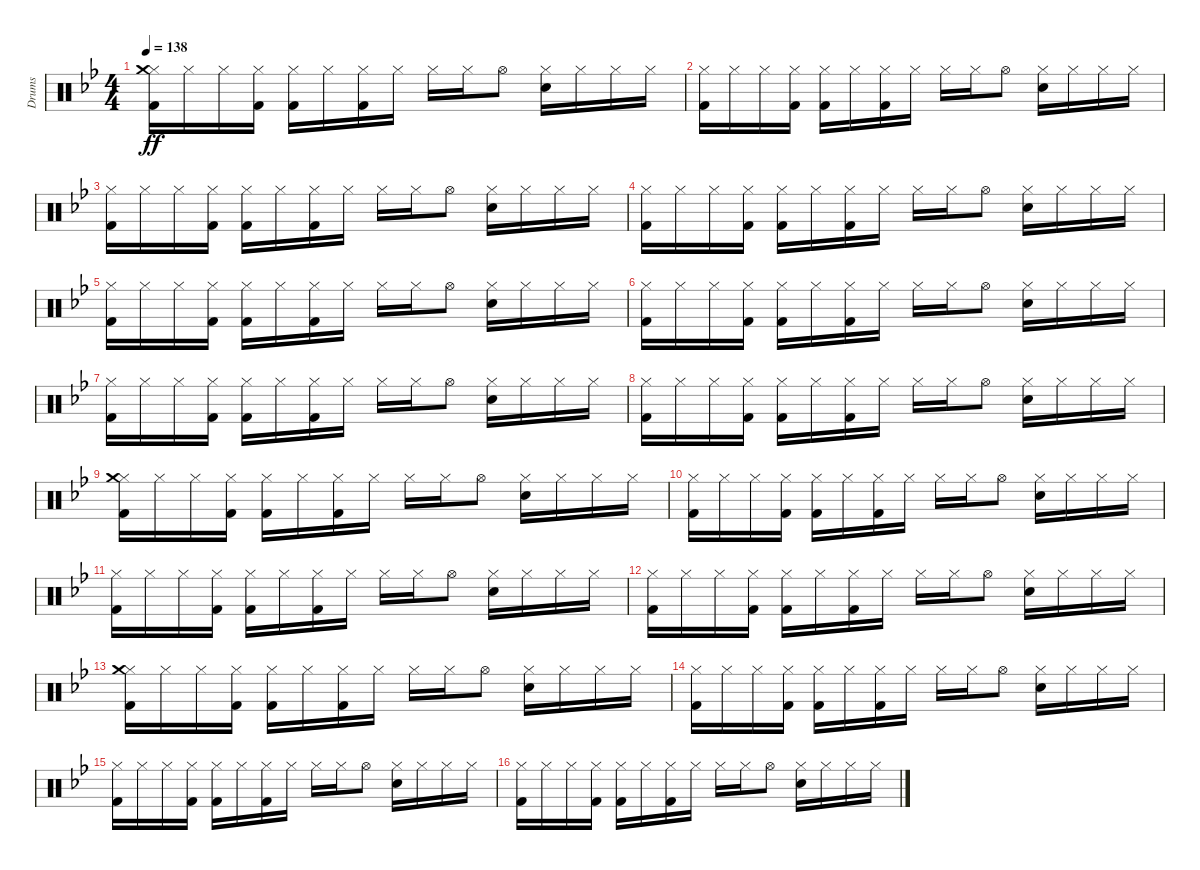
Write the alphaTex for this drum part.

\track ("Drums" "Drums") {instrument percussion}
\staff {score}
\articulation defaults
\ts (4 4)
\tempo 138
\clef neutral
\ks bb
("Kick (hit) 2" "Hi-Hat (closed)" "Crash medium (hit)").16{dy ff} "Hi-Hat (closed)".16 "Hi-Hat (closed)".16 ("Kick (hit) 2" "Hi-Hat (closed)").16 ("Kick (hit) 2" "Hi-Hat (closed)").16 "Hi-Hat (closed)".16 ("Kick (hit) 2" "Hi-Hat (closed)").16 "Hi-Hat (closed)".16 "Hi-Hat (closed)".16 "Hi-Hat (closed)".16 "Hi-Hat (open)".8 ("Snare (hit) 2" "Hi-Hat (closed)").16 "Hi-Hat (closed)".16 "Hi-Hat (closed)".16 "Hi-Hat (closed)".16 |
("Kick (hit) 2" "Hi-Hat (closed)").16 "Hi-Hat (closed)".16 "Hi-Hat (closed)".16 ("Kick (hit) 2" "Hi-Hat (closed)").16 ("Kick (hit) 2" "Hi-Hat (closed)").16 "Hi-Hat (closed)".16 ("Kick (hit) 2" "Hi-Hat (closed)").16 "Hi-Hat (closed)".16 "Hi-Hat (closed)".16 "Hi-Hat (closed)".16 "Hi-Hat (open)".8 ("Snare (hit) 2" "Hi-Hat (closed)").16 "Hi-Hat (closed)".16 "Hi-Hat (closed)".16 "Hi-Hat (closed)".16 |
("Kick (hit) 2" "Hi-Hat (closed)").16 "Hi-Hat (closed)".16 "Hi-Hat (closed)".16 ("Kick (hit) 2" "Hi-Hat (closed)").16 ("Kick (hit) 2" "Hi-Hat (closed)").16 "Hi-Hat (closed)".16 ("Kick (hit) 2" "Hi-Hat (closed)").16 "Hi-Hat (closed)".16 "Hi-Hat (closed)".16 "Hi-Hat (closed)".16 "Hi-Hat (open)".8 ("Snare (hit) 2" "Hi-Hat (closed)").16 "Hi-Hat (closed)".16 "Hi-Hat (closed)".16 "Hi-Hat (closed)".16 |
("Kick (hit) 2" "Hi-Hat (closed)").16 "Hi-Hat (closed)".16 "Hi-Hat (closed)".16 ("Kick (hit) 2" "Hi-Hat (closed)").16 ("Kick (hit) 2" "Hi-Hat (closed)").16 "Hi-Hat (closed)".16 ("Kick (hit) 2" "Hi-Hat (closed)").16 "Hi-Hat (closed)".16 "Hi-Hat (closed)".16 "Hi-Hat (closed)".16 "Hi-Hat (open)".8 ("Snare (hit) 2" "Hi-Hat (closed)").16 "Hi-Hat (closed)".16 "Hi-Hat (closed)".16 "Hi-Hat (closed)".16 |
("Kick (hit) 2" "Hi-Hat (closed)").16 "Hi-Hat (closed)".16 "Hi-Hat (closed)".16 ("Kick (hit) 2" "Hi-Hat (closed)").16 ("Kick (hit) 2" "Hi-Hat (closed)").16 "Hi-Hat (closed)".16 ("Kick (hit) 2" "Hi-Hat (closed)").16 "Hi-Hat (closed)".16 "Hi-Hat (closed)".16 "Hi-Hat (closed)".16 "Hi-Hat (open)".8 ("Snare (hit) 2" "Hi-Hat (closed)").16 "Hi-Hat (closed)".16 "Hi-Hat (closed)".16 "Hi-Hat (closed)".16 |
("Kick (hit) 2" "Hi-Hat (closed)").16 "Hi-Hat (closed)".16 "Hi-Hat (closed)".16 ("Kick (hit) 2" "Hi-Hat (closed)").16 ("Kick (hit) 2" "Hi-Hat (closed)").16 "Hi-Hat (closed)".16 ("Kick (hit) 2" "Hi-Hat (closed)").16 "Hi-Hat (closed)".16 "Hi-Hat (closed)".16 "Hi-Hat (closed)".16 "Hi-Hat (open)".8 ("Snare (hit) 2" "Hi-Hat (closed)").16 "Hi-Hat (closed)".16 "Hi-Hat (closed)".16 "Hi-Hat (closed)".16 |
("Kick (hit) 2" "Hi-Hat (closed)").16 "Hi-Hat (closed)".16 "Hi-Hat (closed)".16 ("Kick (hit) 2" "Hi-Hat (closed)").16 ("Kick (hit) 2" "Hi-Hat (closed)").16 "Hi-Hat (closed)".16 ("Kick (hit) 2" "Hi-Hat (closed)").16 "Hi-Hat (closed)".16 "Hi-Hat (closed)".16 "Hi-Hat (closed)".16 "Hi-Hat (open)".8 ("Snare (hit) 2" "Hi-Hat (closed)").16 "Hi-Hat (closed)".16 "Hi-Hat (closed)".16 "Hi-Hat (closed)".16 |
("Kick (hit) 2" "Hi-Hat (closed)").16 "Hi-Hat (closed)".16 "Hi-Hat (closed)".16 ("Kick (hit) 2" "Hi-Hat (closed)").16 ("Kick (hit) 2" "Hi-Hat (closed)").16 "Hi-Hat (closed)".16 ("Kick (hit) 2" "Hi-Hat (closed)").16 "Hi-Hat (closed)".16 "Hi-Hat (closed)".16 "Hi-Hat (closed)".16 "Hi-Hat (open)".8 ("Snare (hit) 2" "Hi-Hat (closed)").16 "Hi-Hat (closed)".16 "Hi-Hat (closed)".16 "Hi-Hat (closed)".16 |
("Kick (hit) 2" "Hi-Hat (closed)" "Crash medium (hit)").16 "Hi-Hat (closed)".16 "Hi-Hat (closed)".16 ("Kick (hit) 2" "Hi-Hat (closed)").16 ("Kick (hit) 2" "Hi-Hat (closed)").16 "Hi-Hat (closed)".16 ("Kick (hit) 2" "Hi-Hat (closed)").16 "Hi-Hat (closed)".16 "Hi-Hat (closed)".16 "Hi-Hat (closed)".16 "Hi-Hat (open)".8 ("Snare (hit) 2" "Hi-Hat (closed)").16 "Hi-Hat (closed)".16 "Hi-Hat (closed)".16 "Hi-Hat (closed)".16 |
("Kick (hit) 2" "Hi-Hat (closed)").16 "Hi-Hat (closed)".16 "Hi-Hat (closed)".16 ("Kick (hit) 2" "Hi-Hat (closed)").16 ("Kick (hit) 2" "Hi-Hat (closed)").16 "Hi-Hat (closed)".16 ("Kick (hit) 2" "Hi-Hat (closed)").16 "Hi-Hat (closed)".16 "Hi-Hat (closed)".16 "Hi-Hat (closed)".16 "Hi-Hat (open)".8 ("Snare (hit) 2" "Hi-Hat (closed)").16 "Hi-Hat (closed)".16 "Hi-Hat (closed)".16 "Hi-Hat (closed)".16 |
("Kick (hit) 2" "Hi-Hat (closed)").16 "Hi-Hat (closed)".16 "Hi-Hat (closed)".16 ("Kick (hit) 2" "Hi-Hat (closed)").16 ("Kick (hit) 2" "Hi-Hat (closed)").16 "Hi-Hat (closed)".16 ("Kick (hit) 2" "Hi-Hat (closed)").16 "Hi-Hat (closed)".16 "Hi-Hat (closed)".16 "Hi-Hat (closed)".16 "Hi-Hat (open)".8 ("Snare (hit) 2" "Hi-Hat (closed)").16 "Hi-Hat (closed)".16 "Hi-Hat (closed)".16 "Hi-Hat (closed)".16 |
("Kick (hit) 2" "Hi-Hat (closed)").16 "Hi-Hat (closed)".16 "Hi-Hat (closed)".16 ("Kick (hit) 2" "Hi-Hat (closed)").16 ("Kick (hit) 2" "Hi-Hat (closed)").16 "Hi-Hat (closed)".16 ("Kick (hit) 2" "Hi-Hat (closed)").16 "Hi-Hat (closed)".16 "Hi-Hat (closed)".16 "Hi-Hat (closed)".16 "Hi-Hat (open)".8 ("Snare (hit) 2" "Hi-Hat (closed)").16 "Hi-Hat (closed)".16 "Hi-Hat (closed)".16 "Hi-Hat (closed)".16 |
("Kick (hit) 2" "Hi-Hat (closed)" "Crash medium (hit)").16 "Hi-Hat (closed)".16 "Hi-Hat (closed)".16 ("Kick (hit) 2" "Hi-Hat (closed)").16 ("Kick (hit) 2" "Hi-Hat (closed)").16 "Hi-Hat (closed)".16 ("Kick (hit) 2" "Hi-Hat (closed)").16 "Hi-Hat (closed)".16 "Hi-Hat (closed)".16 "Hi-Hat (closed)".16 "Hi-Hat (open)".8 ("Snare (hit) 2" "Hi-Hat (closed)").16 "Hi-Hat (closed)".16 "Hi-Hat (closed)".16 "Hi-Hat (closed)".16 |
("Kick (hit) 2" "Hi-Hat (closed)").16 "Hi-Hat (closed)".16 "Hi-Hat (closed)".16 ("Kick (hit) 2" "Hi-Hat (closed)").16 ("Kick (hit) 2" "Hi-Hat (closed)").16 "Hi-Hat (closed)".16 ("Kick (hit) 2" "Hi-Hat (closed)").16 "Hi-Hat (closed)".16 "Hi-Hat (closed)".16 "Hi-Hat (closed)".16 "Hi-Hat (open)".8 ("Snare (hit) 2" "Hi-Hat (closed)").16 "Hi-Hat (closed)".16 "Hi-Hat (closed)".16 "Hi-Hat (closed)".16 |
("Kick (hit) 2" "Hi-Hat (closed)").16 "Hi-Hat (closed)".16 "Hi-Hat (closed)".16 ("Kick (hit) 2" "Hi-Hat (closed)").16 ("Kick (hit) 2" "Hi-Hat (closed)").16 "Hi-Hat (closed)".16 ("Kick (hit) 2" "Hi-Hat (closed)").16 "Hi-Hat (closed)".16 "Hi-Hat (closed)".16 "Hi-Hat (closed)".16 "Hi-Hat (open)".8 ("Snare (hit) 2" "Hi-Hat (closed)").16 "Hi-Hat (closed)".16 "Hi-Hat (closed)".16 "Hi-Hat (closed)".16 |
("Kick (hit) 2" "Hi-Hat (closed)").16 "Hi-Hat (closed)".16 "Hi-Hat (closed)".16 ("Kick (hit) 2" "Hi-Hat (closed)").16 ("Kick (hit) 2" "Hi-Hat (closed)").16 "Hi-Hat (closed)".16 ("Kick (hit) 2" "Hi-Hat (closed)").16 "Hi-Hat (closed)".16 "Hi-Hat (closed)".16 "Hi-Hat (closed)".16 "Hi-Hat (open)".8 ("Snare (hit) 2" "Hi-Hat (closed)").16 "Hi-Hat (closed)".16 "Hi-Hat (closed)".16 "Hi-Hat (closed)".16
